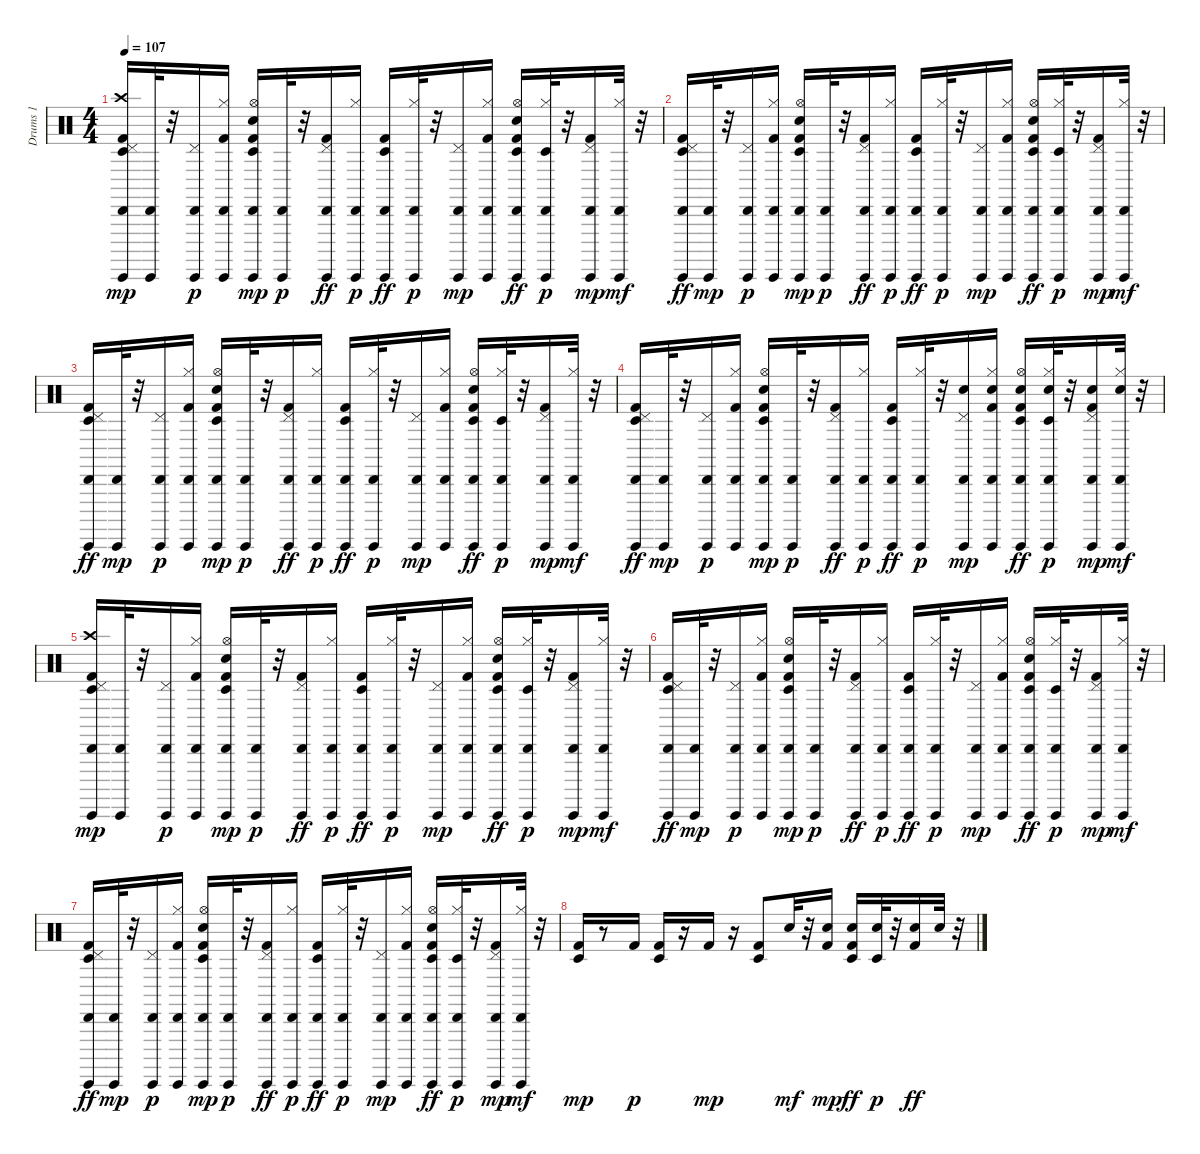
\track ("Drums 1" "Drums 1") {instrument percussion}
\staff {score}
\articulation defaults
\ts (4 4)
\tempo 107
\clef neutral
\ks c
("Timbale low (hit)" "Kick (hit) 2" "Pedal Hi-Hat (hit)" "Guiro (hit)" "Cabasa (hit)" "Crash high (hit)").16{dy mp} ("Guiro (hit)" "Cabasa (hit)").32 r.32 ("Pedal Hi-Hat (hit)" "Guiro (hit)" "Cabasa (hit)").16{dy p} ("Kick (hit) 2" "Hi-Hat (closed)" "Guiro (hit)" "Cabasa (hit)").16 ("Timbale low (hit)" "Kick (hit) 2" "Snare (hit) 2" "Hi-Hat (open)" "Guiro (hit)" "Cabasa (hit)").16{dy mp} ("Guiro (hit)" "Cabasa (hit)").32{dy p} r.32 ("Kick (hit) 2" "Pedal Hi-Hat (hit)" "Guiro (hit)" "Cabasa (hit)").16{dy ff} ("Hi-Hat (closed)" "Guiro (hit)" "Cabasa (hit)").16{dy p} ("Timbale low (hit)" "Kick (hit) 2" "Guiro (hit)" "Cabasa (hit)").16{dy ff} ("Hi-Hat (closed)" "Guiro (hit)" "Cabasa (hit)").32{dy p} r.32 ("Pedal Hi-Hat (hit)" "Guiro (hit)" "Cabasa (hit)").16{dy mp} ("Kick (hit) 2" "Hi-Hat (closed)" "Guiro (hit)" "Cabasa (hit)").16 ("Timbale low (hit)" "Kick (hit) 2" "Snare (hit) 2" "Hi-Hat (open)" "Guiro (hit)" "Cabasa (hit)").16{dy ff} ("Timbale low (hit)" "Hi-Hat (closed)" "Guiro (hit)" "Cabasa (hit)").32{dy p} r.32 ("Kick (hit) 2" "Pedal Hi-Hat (hit)" "Guiro (hit)" "Cabasa (hit)").16{dy mp} ("Hi-Hat (closed)" "Guiro (hit)" "Cabasa (hit)").32{dy mf} r.32 |
("Timbale low (hit)" "Kick (hit) 2" "Pedal Hi-Hat (hit)" "Guiro (hit)" "Cabasa (hit)").16{dy ff} ("Guiro (hit)" "Cabasa (hit)").32{dy mp} r.32 ("Pedal Hi-Hat (hit)" "Guiro (hit)" "Cabasa (hit)").16{dy p} ("Kick (hit) 2" "Hi-Hat (closed)" "Guiro (hit)" "Cabasa (hit)").16 ("Timbale low (hit)" "Kick (hit) 2" "Snare (hit) 2" "Hi-Hat (open)" "Guiro (hit)" "Cabasa (hit)").16{dy mp} ("Guiro (hit)" "Cabasa (hit)").32{dy p} r.32 ("Kick (hit) 2" "Pedal Hi-Hat (hit)" "Guiro (hit)" "Cabasa (hit)").16{dy ff} ("Hi-Hat (closed)" "Guiro (hit)" "Cabasa (hit)").16{dy p} ("Timbale low (hit)" "Kick (hit) 2" "Guiro (hit)" "Cabasa (hit)").16{dy ff} ("Hi-Hat (closed)" "Guiro (hit)" "Cabasa (hit)").32{dy p} r.32 ("Pedal Hi-Hat (hit)" "Guiro (hit)" "Cabasa (hit)").16{dy mp} ("Kick (hit) 2" "Hi-Hat (closed)" "Guiro (hit)" "Cabasa (hit)").16 ("Timbale low (hit)" "Kick (hit) 2" "Snare (hit) 2" "Hi-Hat (open)" "Guiro (hit)" "Cabasa (hit)").16{dy ff} ("Timbale low (hit)" "Hi-Hat (closed)" "Guiro (hit)" "Cabasa (hit)").32{dy p} r.32 ("Kick (hit) 2" "Pedal Hi-Hat (hit)" "Guiro (hit)" "Cabasa (hit)").16{dy mp} ("Hi-Hat (closed)" "Guiro (hit)" "Cabasa (hit)").32{dy mf} r.32 |
("Timbale low (hit)" "Kick (hit) 2" "Pedal Hi-Hat (hit)" "Guiro (hit)" "Cabasa (hit)").16{dy ff} ("Guiro (hit)" "Cabasa (hit)").32{dy mp} r.32 ("Pedal Hi-Hat (hit)" "Guiro (hit)" "Cabasa (hit)").16{dy p} ("Kick (hit) 2" "Hi-Hat (closed)" "Guiro (hit)" "Cabasa (hit)").16 ("Timbale low (hit)" "Kick (hit) 2" "Snare (hit) 2" "Hi-Hat (open)" "Guiro (hit)" "Cabasa (hit)").16{dy mp} ("Guiro (hit)" "Cabasa (hit)").32{dy p} r.32 ("Kick (hit) 2" "Pedal Hi-Hat (hit)" "Guiro (hit)" "Cabasa (hit)").16{dy ff} ("Hi-Hat (closed)" "Guiro (hit)" "Cabasa (hit)").16{dy p} ("Timbale low (hit)" "Kick (hit) 2" "Guiro (hit)" "Cabasa (hit)").16{dy ff} ("Hi-Hat (closed)" "Guiro (hit)" "Cabasa (hit)").32{dy p} r.32 ("Pedal Hi-Hat (hit)" "Guiro (hit)" "Cabasa (hit)").16{dy mp} ("Kick (hit) 2" "Hi-Hat (closed)" "Guiro (hit)" "Cabasa (hit)").16 ("Timbale low (hit)" "Kick (hit) 2" "Snare (hit) 2" "Hi-Hat (open)" "Guiro (hit)" "Cabasa (hit)").16{dy ff} ("Timbale low (hit)" "Hi-Hat (closed)" "Guiro (hit)" "Cabasa (hit)").32{dy p} r.32 ("Kick (hit) 2" "Pedal Hi-Hat (hit)" "Guiro (hit)" "Cabasa (hit)").16{dy mp} ("Hi-Hat (closed)" "Guiro (hit)" "Cabasa (hit)").32{dy mf} r.32 |
("Timbale low (hit)" "Kick (hit) 2" "Pedal Hi-Hat (hit)" "Guiro (hit)" "Cabasa (hit)").16{dy ff} ("Guiro (hit)" "Cabasa (hit)").32{dy mp} r.32 ("Pedal Hi-Hat (hit)" "Guiro (hit)" "Cabasa (hit)").16{dy p} ("Kick (hit) 2" "Hi-Hat (closed)" "Guiro (hit)" "Cabasa (hit)").16 ("Timbale low (hit)" "Kick (hit) 2" "Snare (hit) 2" "Hi-Hat (open)" "Guiro (hit)" "Cabasa (hit)").16{dy mp} ("Guiro (hit)" "Cabasa (hit)").32{dy p} r.32 ("Kick (hit) 2" "Pedal Hi-Hat (hit)" "Guiro (hit)" "Cabasa (hit)").16{dy ff} ("Hi-Hat (closed)" "Guiro (hit)" "Cabasa (hit)").16{dy p} ("Timbale low (hit)" "Kick (hit) 2" "Guiro (hit)" "Cabasa (hit)").16{dy ff} ("Hi-Hat (closed)" "Guiro (hit)" "Cabasa (hit)").32{dy p} r.32 ("Pedal Hi-Hat (hit)" "Guiro (hit)" "Snare (hit) 2" "Cabasa (hit)").16{dy mp} ("Kick (hit) 2" "Hi-Hat (closed)" "Guiro (hit)" "Snare (hit) 2" "Cabasa (hit)").16 ("Timbale low (hit)" "Kick (hit) 2" "Hi-Hat (open)" "Guiro (hit)" "Snare (hit) 2" "Cabasa (hit)").16{dy ff} ("Timbale low (hit)" "Hi-Hat (closed)" "Guiro (hit)" "Snare (hit) 2" "Cabasa (hit)").32{dy p} r.32 ("Kick (hit) 2" "Pedal Hi-Hat (hit)" "Guiro (hit)" "Snare (hit) 2" "Cabasa (hit)").16{dy mp} ("Hi-Hat (closed)" "Guiro (hit)" "Snare (hit) 2" "Cabasa (hit)").32{dy mf} r.32 |
("Timbale low (hit)" "Kick (hit) 2" "Pedal Hi-Hat (hit)" "Guiro (hit)" "Cabasa (hit)" "Crash high (hit)").16{dy mp} ("Guiro (hit)" "Cabasa (hit)").32 r.32 ("Pedal Hi-Hat (hit)" "Guiro (hit)" "Cabasa (hit)").16{dy p} ("Kick (hit) 2" "Hi-Hat (closed)" "Guiro (hit)" "Cabasa (hit)").16 ("Timbale low (hit)" "Kick (hit) 2" "Snare (hit) 2" "Hi-Hat (open)" "Guiro (hit)" "Cabasa (hit)").16{dy mp} ("Guiro (hit)" "Cabasa (hit)").32{dy p} r.32 ("Kick (hit) 2" "Pedal Hi-Hat (hit)" "Guiro (hit)" "Cabasa (hit)").16{dy ff} ("Hi-Hat (closed)" "Guiro (hit)" "Cabasa (hit)").16{dy p} ("Timbale low (hit)" "Kick (hit) 2" "Guiro (hit)" "Cabasa (hit)").16{dy ff} ("Hi-Hat (closed)" "Guiro (hit)" "Cabasa (hit)").32{dy p} r.32 ("Pedal Hi-Hat (hit)" "Guiro (hit)" "Cabasa (hit)").16{dy mp} ("Kick (hit) 2" "Hi-Hat (closed)" "Guiro (hit)" "Cabasa (hit)").16 ("Timbale low (hit)" "Kick (hit) 2" "Snare (hit) 2" "Hi-Hat (open)" "Guiro (hit)" "Cabasa (hit)").16{dy ff} ("Timbale low (hit)" "Hi-Hat (closed)" "Guiro (hit)" "Cabasa (hit)").32{dy p} r.32 ("Kick (hit) 2" "Pedal Hi-Hat (hit)" "Guiro (hit)" "Cabasa (hit)").16{dy mp} ("Hi-Hat (closed)" "Guiro (hit)" "Cabasa (hit)").32{dy mf} r.32 |
("Timbale low (hit)" "Kick (hit) 2" "Pedal Hi-Hat (hit)" "Guiro (hit)" "Cabasa (hit)").16{dy ff} ("Guiro (hit)" "Cabasa (hit)").32{dy mp} r.32 ("Pedal Hi-Hat (hit)" "Guiro (hit)" "Cabasa (hit)").16{dy p} ("Kick (hit) 2" "Hi-Hat (closed)" "Guiro (hit)" "Cabasa (hit)").16 ("Timbale low (hit)" "Kick (hit) 2" "Snare (hit) 2" "Hi-Hat (open)" "Guiro (hit)" "Cabasa (hit)").16{dy mp} ("Guiro (hit)" "Cabasa (hit)").32{dy p} r.32 ("Kick (hit) 2" "Pedal Hi-Hat (hit)" "Guiro (hit)" "Cabasa (hit)").16{dy ff} ("Hi-Hat (closed)" "Guiro (hit)" "Cabasa (hit)").16{dy p} ("Timbale low (hit)" "Kick (hit) 2" "Guiro (hit)" "Cabasa (hit)").16{dy ff} ("Hi-Hat (closed)" "Guiro (hit)" "Cabasa (hit)").32{dy p} r.32 ("Pedal Hi-Hat (hit)" "Guiro (hit)" "Cabasa (hit)").16{dy mp} ("Kick (hit) 2" "Hi-Hat (closed)" "Guiro (hit)" "Cabasa (hit)").16 ("Timbale low (hit)" "Kick (hit) 2" "Snare (hit) 2" "Hi-Hat (open)" "Guiro (hit)" "Cabasa (hit)").16{dy ff} ("Timbale low (hit)" "Hi-Hat (closed)" "Guiro (hit)" "Cabasa (hit)").32{dy p} r.32 ("Kick (hit) 2" "Pedal Hi-Hat (hit)" "Guiro (hit)" "Cabasa (hit)").16{dy mp} ("Hi-Hat (closed)" "Guiro (hit)" "Cabasa (hit)").32{dy mf} r.32 |
("Timbale low (hit)" "Kick (hit) 2" "Pedal Hi-Hat (hit)" "Guiro (hit)" "Cabasa (hit)").16{dy ff} ("Guiro (hit)" "Cabasa (hit)").32{dy mp} r.32 ("Pedal Hi-Hat (hit)" "Guiro (hit)" "Cabasa (hit)").16{dy p} ("Kick (hit) 2" "Hi-Hat (closed)" "Guiro (hit)" "Cabasa (hit)").16 ("Timbale low (hit)" "Kick (hit) 2" "Snare (hit) 2" "Hi-Hat (open)" "Guiro (hit)" "Cabasa (hit)").16{dy mp} ("Guiro (hit)" "Cabasa (hit)").32{dy p} r.32 ("Kick (hit) 2" "Pedal Hi-Hat (hit)" "Guiro (hit)" "Cabasa (hit)").16{dy ff} ("Hi-Hat (closed)" "Guiro (hit)" "Cabasa (hit)").16{dy p} ("Timbale low (hit)" "Kick (hit) 2" "Guiro (hit)" "Cabasa (hit)").16{dy ff} ("Hi-Hat (closed)" "Guiro (hit)" "Cabasa (hit)").32{dy p} r.32 ("Pedal Hi-Hat (hit)" "Guiro (hit)" "Cabasa (hit)").16{dy mp} ("Kick (hit) 2" "Hi-Hat (closed)" "Guiro (hit)" "Cabasa (hit)").16 ("Timbale low (hit)" "Kick (hit) 2" "Snare (hit) 2" "Hi-Hat (open)" "Guiro (hit)" "Cabasa (hit)").16{dy ff} ("Timbale low (hit)" "Hi-Hat (closed)" "Guiro (hit)" "Cabasa (hit)").32{dy p} r.32 ("Kick (hit) 2" "Pedal Hi-Hat (hit)" "Guiro (hit)" "Cabasa (hit)").16{dy mp} ("Hi-Hat (closed)" "Guiro (hit)" "Cabasa (hit)").32{dy mf} r.32 |
("Timbale low (hit)" "Kick (hit) 2").16{dy mp} r.8 "Kick (hit) 2".16{dy p} ("Timbale low (hit)" "Kick (hit) 2").16 r.16 "Kick (hit) 2".16{dy mp} r.16 ("Timbale low (hit)" "Kick (hit) 2").8 "Snare (hit) 2".32{dy mf} r.32 ("Kick (hit) 2" "Snare (hit) 2").16{dy mp} ("Timbale low (hit)" "Kick (hit) 2" "Snare (hit) 2").16{dy ff} ("Timbale low (hit)" "Snare (hit) 2").32{dy p} r.32 ("Kick (hit) 2" "Snare (hit) 2").16{dy ff} "Snare (hit) 2".32 r.32
